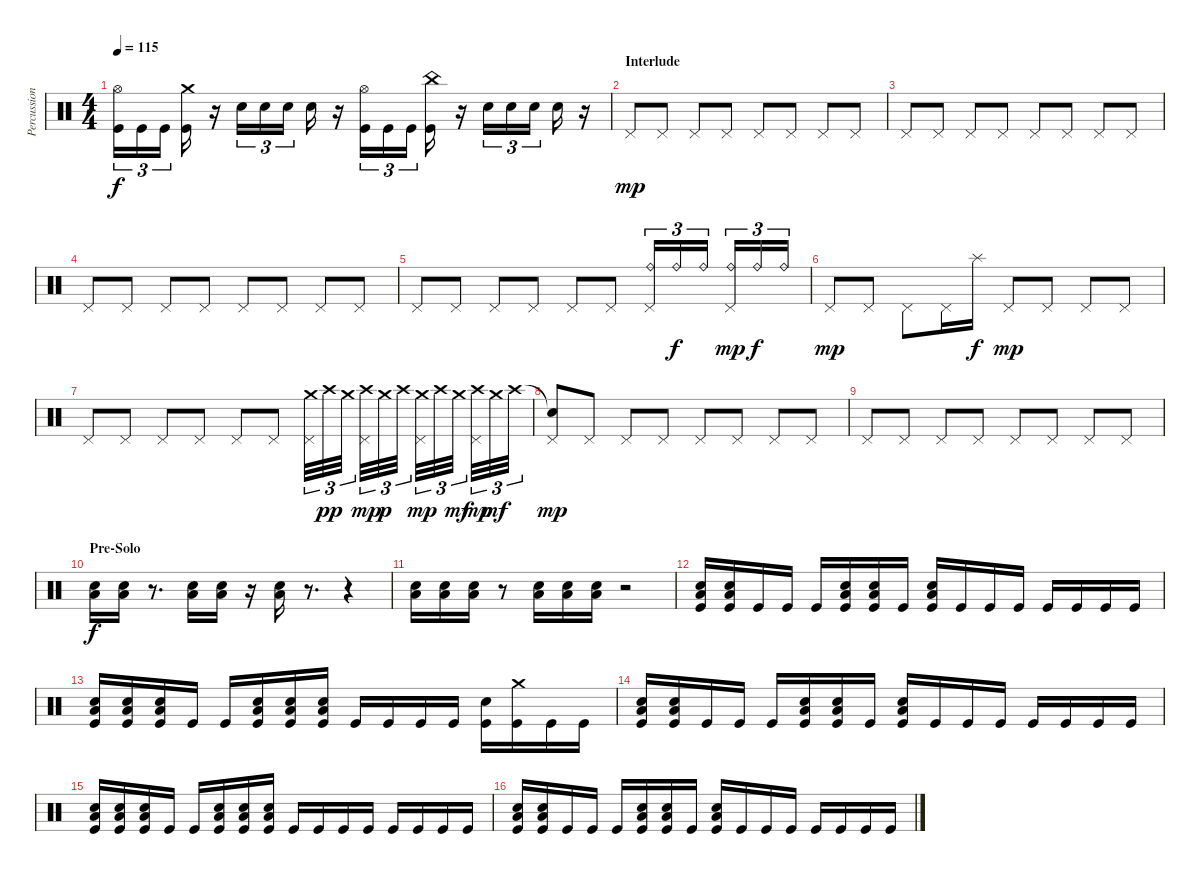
\track ("Percussion" "Percussion") {instrument percussion}
\staff {score}
\articulation defaults
\ts (4 4)
\tempo 115
\clef neutral
\ks c
("Hi-Hat (open)" "Kick (hit)").16{tu (3 2) dy f} "Kick (hit)".16{tu (3 2)} "Kick (hit)".16{tu (3 2)} ("Crash medium (hit)" "Kick (hit)").16 r.16 "Electric Snare (hit)".16{tu (3 2)} "Electric Snare (hit)".16{tu (3 2)} "Electric Snare (hit)".16{tu (3 2)} "Electric Snare (hit)".16 r.16 ("Hi-Hat (open)" "Kick (hit)").16{tu (3 2)} "Kick (hit)".16{tu (3 2)} "Kick (hit)".16{tu (3 2)} ("China (hit)" "Kick (hit)").16 r.16 "Electric Snare (hit)".16{tu (3 2)} "Electric Snare (hit)".16{tu (3 2)} "Electric Snare (hit)".16{tu (3 2)} "Electric Snare (hit)".16 r.16 |
\section ("" "Interlude")
"Pedal Hi-Hat (hit)".8{dy mp} "Pedal Hi-Hat (hit)".8 "Pedal Hi-Hat (hit)".8 "Pedal Hi-Hat (hit)".8 "Pedal Hi-Hat (hit)".8 "Pedal Hi-Hat (hit)".8 "Pedal Hi-Hat (hit)".8 "Pedal Hi-Hat (hit)".8 |
"Pedal Hi-Hat (hit)".8 "Pedal Hi-Hat (hit)".8 "Pedal Hi-Hat (hit)".8 "Pedal Hi-Hat (hit)".8 "Pedal Hi-Hat (hit)".8 "Pedal Hi-Hat (hit)".8 "Pedal Hi-Hat (hit)".8 "Pedal Hi-Hat (hit)".8 |
"Pedal Hi-Hat (hit)".8 "Pedal Hi-Hat (hit)".8 "Pedal Hi-Hat (hit)".8 "Pedal Hi-Hat (hit)".8 "Pedal Hi-Hat (hit)".8 "Pedal Hi-Hat (hit)".8 "Pedal Hi-Hat (hit)".8 "Pedal Hi-Hat (hit)".8 |
"Pedal Hi-Hat (hit)".8 "Pedal Hi-Hat (hit)".8 "Pedal Hi-Hat (hit)".8 "Pedal Hi-Hat (hit)".8 "Pedal Hi-Hat (hit)".8 "Pedal Hi-Hat (hit)".8 ("Pedal Hi-Hat (hit)" "Ride (bell)").16{tu (3 2)} "Ride (bell)".16{tu (3 2) dy f} "Ride (bell)".16{tu (3 2)} ("Pedal Hi-Hat (hit)" "Ride (bell)").16{tu (3 2) dy mp} "Ride (bell)".16{tu (3 2) dy f} "Ride (bell)".16{tu (3 2)} |
"Pedal Hi-Hat (hit)".8{dy mp} "Pedal Hi-Hat (hit)".8 "Pedal Hi-Hat (hit)".8 "Pedal Hi-Hat (hit)".16 "Splash (hit)".16{dy f} "Pedal Hi-Hat (hit)".8{dy mp} "Pedal Hi-Hat (hit)".8 "Pedal Hi-Hat (hit)".8 "Pedal Hi-Hat (hit)".8 |
"Pedal Hi-Hat (hit)".8 "Pedal Hi-Hat (hit)".8 "Pedal Hi-Hat (hit)".8 "Pedal Hi-Hat (hit)".8 "Pedal Hi-Hat (hit)".8 "Pedal Hi-Hat (hit)".8 ("Crash medium (hit)" "Pedal Hi-Hat (hit)").32{tu (3 2)} "Crash high (hit)".32{tu (3 2) dy pp} "Crash medium (hit)".32{tu (3 2)} ("Crash high (hit)" "Pedal Hi-Hat (hit)").32{tu (3 2) dy mp} "Crash medium (hit)".32{tu (3 2) dy p} "Crash high (hit)".32{tu (3 2)} ("Crash medium (hit)" "Pedal Hi-Hat (hit)").32{tu (3 2) dy mp} "Crash high (hit)".32{tu (3 2)} "Crash medium (hit)".32{tu (3 2) dy mf} ("Crash high (hit)" "Pedal Hi-Hat (hit)").32{tu (3 2) dy mp} "Crash medium (hit)".32{tu (3 2) dy mf} "Crash high (hit)".32{tu (3 2)} |
("Snare (hit)"{t} "Pedal Hi-Hat (hit)").8{dy mp} "Pedal Hi-Hat (hit)".8 "Pedal Hi-Hat (hit)".8 "Pedal Hi-Hat (hit)".8 "Pedal Hi-Hat (hit)".8 "Pedal Hi-Hat (hit)".8 "Pedal Hi-Hat (hit)".8 "Pedal Hi-Hat (hit)".8 |
"Pedal Hi-Hat (hit)".8 "Pedal Hi-Hat (hit)".8 "Pedal Hi-Hat (hit)".8 "Pedal Hi-Hat (hit)".8 "Pedal Hi-Hat (hit)".8 "Pedal Hi-Hat (hit)".8 "Pedal Hi-Hat (hit)".8 "Pedal Hi-Hat (hit)".8 |
\section ("" "Pre-Solo")
("Electric Snare (hit)" "Low Floor Tom (hit)").16{dy f} ("Electric Snare (hit)" "Low Floor Tom (hit)").16 r.8{d} ("Electric Snare (hit)" "Low Floor Tom (hit)").16 ("Electric Snare (hit)" "Low Floor Tom (hit)").16 r.16 ("Electric Snare (hit)" "Low Floor Tom (hit)").16 r.8{d} r.4 |
("Electric Snare (hit)" "Low Floor Tom (hit)").16 ("Electric Snare (hit)" "Low Floor Tom (hit)").16 ("Electric Snare (hit)" "Low Floor Tom (hit)").16 r.8 ("Electric Snare (hit)" "Low Floor Tom (hit)").16 ("Electric Snare (hit)" "Low Floor Tom (hit)").16 ("Electric Snare (hit)" "Low Floor Tom (hit)").16 r.2 |
("Electric Snare (hit)" "Low Floor Tom (hit)" "Kick (hit)").16 ("Electric Snare (hit)" "Low Floor Tom (hit)" "Kick (hit)").16 "Kick (hit)".16 "Kick (hit)".16 "Kick (hit)".16 ("Electric Snare (hit)" "Low Floor Tom (hit)" "Kick (hit)").16 ("Electric Snare (hit)" "Low Floor Tom (hit)" "Kick (hit)").16 "Kick (hit)".16 ("Electric Snare (hit)" "Low Floor Tom (hit)" "Kick (hit)").16 "Kick (hit)".16 "Kick (hit)".16 "Kick (hit)".16 "Kick (hit)".16 "Kick (hit)".16 "Kick (hit)".16 "Kick (hit)".16 |
("Electric Snare (hit)" "Low Floor Tom (hit)" "Kick (hit)").16 ("Electric Snare (hit)" "Low Floor Tom (hit)" "Kick (hit)").16 ("Electric Snare (hit)" "Low Floor Tom (hit)" "Kick (hit)").16 "Kick (hit)".16 "Kick (hit)".16 ("Electric Snare (hit)" "Low Floor Tom (hit)" "Kick (hit)").16 ("Electric Snare (hit)" "Low Floor Tom (hit)" "Kick (hit)").16 ("Electric Snare (hit)" "Low Floor Tom (hit)" "Kick (hit)").16 "Kick (hit)".16 "Kick (hit)".16 "Kick (hit)".16 "Kick (hit)".16 ("Electric Snare (hit)" "Kick (hit)").16 ("Crash medium (hit)" "Kick (hit)").16 "Kick (hit)".16 "Kick (hit)".16 |
("Electric Snare (hit)" "Low Floor Tom (hit)" "Kick (hit)").16 ("Electric Snare (hit)" "Low Floor Tom (hit)" "Kick (hit)").16 "Kick (hit)".16 "Kick (hit)".16 "Kick (hit)".16 ("Electric Snare (hit)" "Low Floor Tom (hit)" "Kick (hit)").16 ("Electric Snare (hit)" "Low Floor Tom (hit)" "Kick (hit)").16 "Kick (hit)".16 ("Electric Snare (hit)" "Low Floor Tom (hit)" "Kick (hit)").16 "Kick (hit)".16 "Kick (hit)".16 "Kick (hit)".16 "Kick (hit)".16 "Kick (hit)".16 "Kick (hit)".16 "Kick (hit)".16 |
("Electric Snare (hit)" "Low Floor Tom (hit)" "Kick (hit)").16 ("Electric Snare (hit)" "Low Floor Tom (hit)" "Kick (hit)").16 ("Electric Snare (hit)" "Low Floor Tom (hit)" "Kick (hit)").16 "Kick (hit)".16 "Kick (hit)".16 ("Electric Snare (hit)" "Low Floor Tom (hit)" "Kick (hit)").16 ("Electric Snare (hit)" "Low Floor Tom (hit)" "Kick (hit)").16 ("Electric Snare (hit)" "Low Floor Tom (hit)" "Kick (hit)").16 "Kick (hit)".16 "Kick (hit)".16 "Kick (hit)".16 "Kick (hit)".16 "Kick (hit)".16 "Kick (hit)".16 "Kick (hit)".16 "Kick (hit)".16 |
("Electric Snare (hit)" "Low Floor Tom (hit)" "Kick (hit)").16 ("Electric Snare (hit)" "Low Floor Tom (hit)" "Kick (hit)").16 "Kick (hit)".16 "Kick (hit)".16 "Kick (hit)".16 ("Electric Snare (hit)" "Low Floor Tom (hit)" "Kick (hit)").16 ("Electric Snare (hit)" "Low Floor Tom (hit)" "Kick (hit)").16 "Kick (hit)".16 ("Electric Snare (hit)" "Low Floor Tom (hit)" "Kick (hit)").16 "Kick (hit)".16 "Kick (hit)".16 "Kick (hit)".16 "Kick (hit)".16 "Kick (hit)".16 "Kick (hit)".16 "Kick (hit)".16
